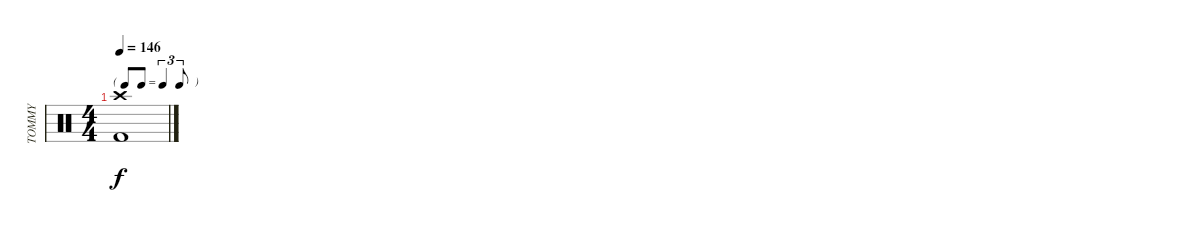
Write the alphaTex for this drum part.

\track ("TOMMY" "TOMMY") {instrument percussion}
\staff {score}
\articulation defaults
\ts (4 4)
\tf triplet8th
\tempo 146
\clef neutral
\ks c
("Kick (hit) 2" "Crash high (hit)").1{dy f}
